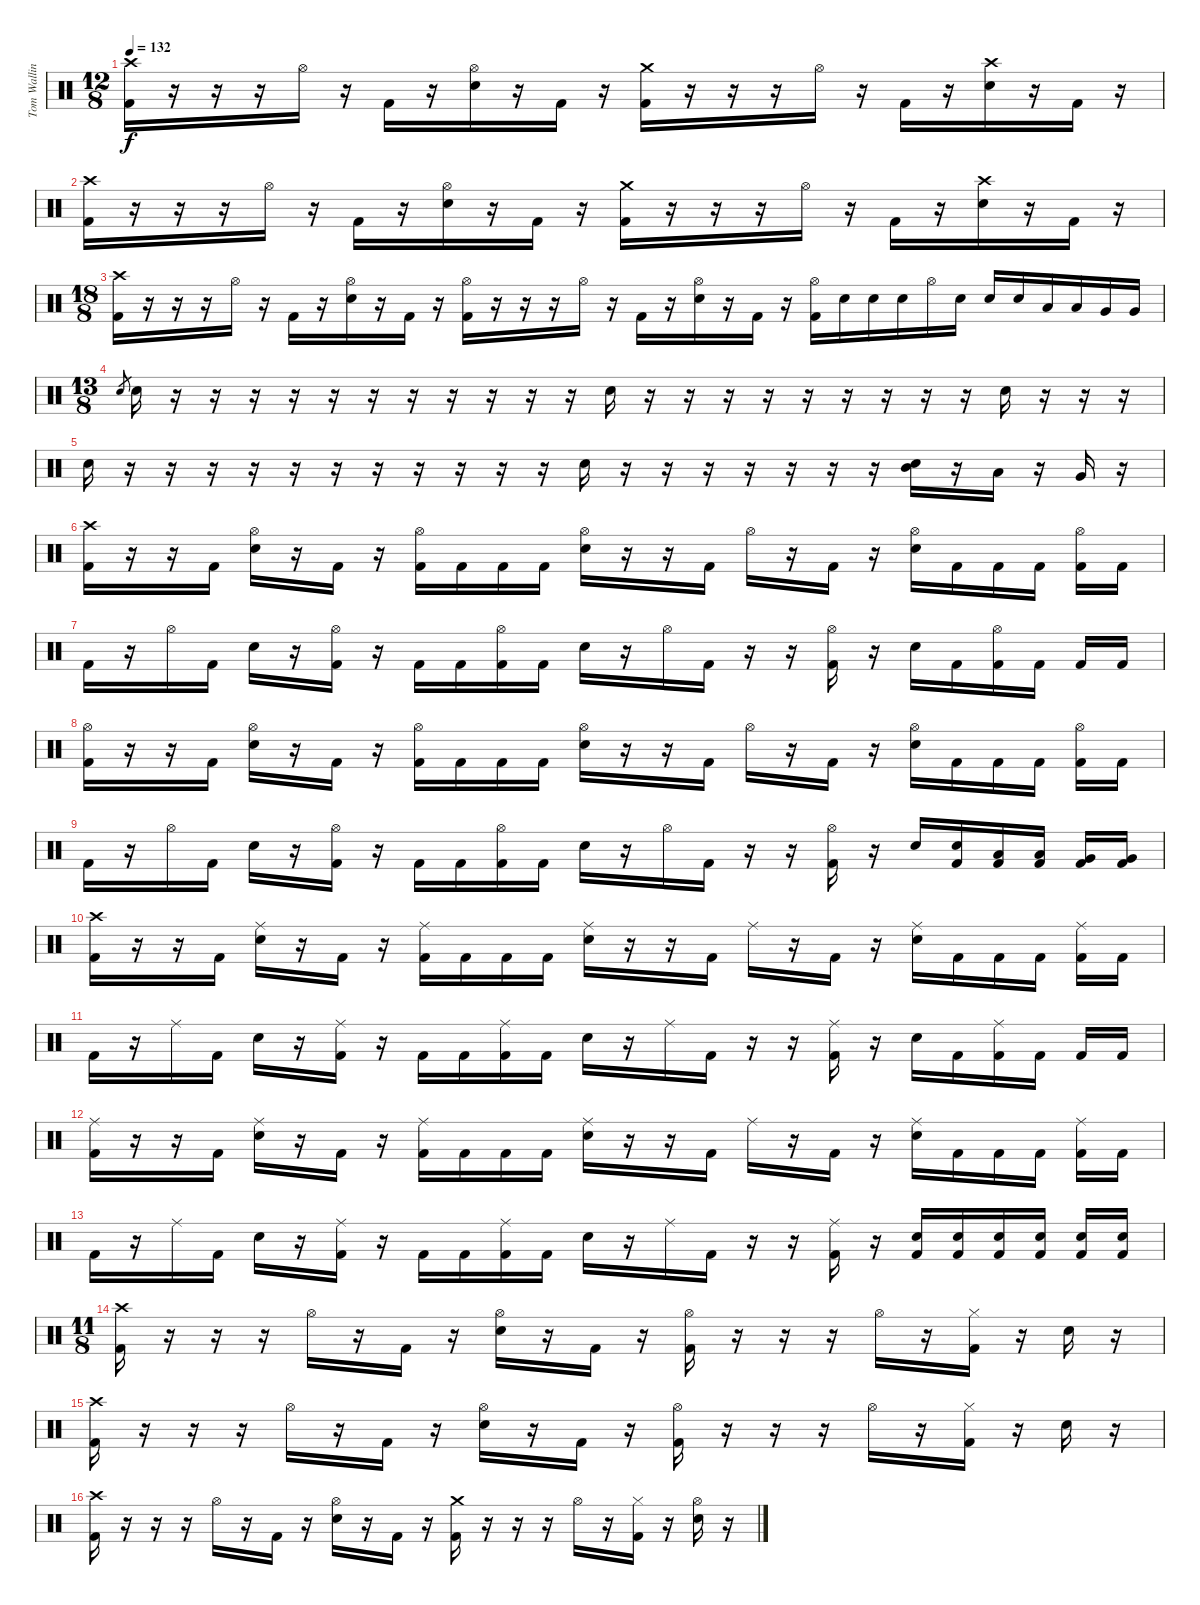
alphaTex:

\track ("Tom Walling [Drums]" "Tom Wallin") {instrument percussion}
\staff {score}
\articulation defaults
\ts (12 8)
\tempo 132
\clef neutral
\ks c
("Crash high (hit)" "Kick (hit) 2").16{dy f} r.16 r.16 r.16 "Hi-Hat (open)".16 r.16 "Kick (hit) 2".16 r.16 ("Hi-Hat (open)" "Electric Snare (hit)").16 r.16 "Kick (hit) 2".16 r.16 ("Crash medium (hit)" "Kick (hit) 2").16 r.16 r.16 r.16 "Hi-Hat (open)".16 r.16 "Kick (hit) 2".16 r.16 ("Crash high (hit)" "Electric Snare (hit)").16 r.16 "Kick (hit) 2".16 r.16 |
("Crash high (hit)" "Kick (hit) 2").16 r.16 r.16 r.16 "Hi-Hat (open)".16 r.16 "Kick (hit) 2".16 r.16 ("Hi-Hat (open)" "Electric Snare (hit)").16 r.16 "Kick (hit) 2".16 r.16 ("Crash medium (hit)" "Kick (hit) 2").16 r.16 r.16 r.16 "Hi-Hat (open)".16 r.16 "Kick (hit) 2".16 r.16 ("Crash high (hit)" "Electric Snare (hit)").16 r.16 "Kick (hit) 2".16 r.16 |
\ts (18 8)
("Crash high (hit)" "Kick (hit) 2").16 r.16 r.16 r.16 "Hi-Hat (open)".16 r.16 "Kick (hit) 2".16 r.16 ("Hi-Hat (open)" "Electric Snare (hit)").16 r.16 "Kick (hit) 2".16 r.16 ("Hi-Hat (open)" "Kick (hit) 2").16 r.16 r.16 r.16 "Hi-Hat (open)".16 r.16 "Kick (hit) 2".16 r.16 ("Hi-Hat (open)" "Electric Snare (hit)").16 r.16 "Kick (hit) 2".16 r.16 ("Hi-Hat (open)" "Kick (hit) 2").16 "Electric Snare (hit)".16 "Electric Snare (hit)".16 "Electric Snare (hit)".16 "Hi-Hat (open)".16 "Electric Snare (hit)".16 "Electric Snare (hit)".16 "Electric Snare (hit)".16 "Low Tom (hit)".16 "Low Tom (hit)".16 "Very Low Tom (hit)".16 "Very Low Tom (hit)".16 |
\ts (13 8)
"Electric Snare (hit)".8{gr} "Electric Snare (hit)".16 r.16 r.16 r.16 r.16 r.16 r.16 r.16 r.16 r.16 r.16 r.16 "Electric Snare (hit)".16 r.16 r.16 r.16 r.16 r.16 r.16 r.16 r.16 r.16 "Electric Snare (hit)".16 r.16 r.16 r.16 |
"Electric Snare (hit)".16 r.16 r.16 r.16 r.16 r.16 r.16 r.16 r.16 r.16 r.16 r.16 "Electric Snare (hit)".16 r.16 r.16 r.16 r.16 r.16 r.16 r.16 ("Mid Tom (hit)" "Electric Snare (hit)").16 r.16 "Low Tom (hit)".16 r.16 "Very Low Tom (hit)".16 r.16 |
("Crash high (hit)" "Kick (hit) 2").16 r.16 r.16 "Kick (hit) 2".16 ("Hi-Hat (open)" "Electric Snare (hit)").16 r.16 "Kick (hit) 2".16 r.16 ("Hi-Hat (open)" "Kick (hit) 2").16 "Kick (hit) 2".16 "Kick (hit) 2".16 "Kick (hit) 2".16 ("Hi-Hat (open)" "Electric Snare (hit)").16 r.16 r.16 "Kick (hit) 2".16 "Hi-Hat (open)".16 r.16 "Kick (hit) 2".16 r.16 ("Hi-Hat (open)" "Electric Snare (hit)").16 "Kick (hit) 2".16 "Kick (hit) 2".16 "Kick (hit) 2".16 ("Hi-Hat (open)" "Kick (hit) 2").16 "Kick (hit) 2".16 |
"Kick (hit) 2".16 r.16 "Hi-Hat (open)".16 "Kick (hit) 2".16 "Electric Snare (hit)".16 r.16 ("Hi-Hat (open)" "Kick (hit) 2").16 r.16 "Kick (hit) 2".16 "Kick (hit) 2".16 ("Hi-Hat (open)" "Kick (hit) 2").16 "Kick (hit) 2".16 "Electric Snare (hit)".16 r.16 "Hi-Hat (open)".16 "Kick (hit) 2".16 r.16 r.16 ("Hi-Hat (open)" "Kick (hit) 2").16 r.16 "Electric Snare (hit)".16 "Kick (hit) 2".16 ("Hi-Hat (open)" "Kick (hit) 2").16 "Kick (hit) 2".16 "Kick (hit) 2".16 "Kick (hit) 2".16 |
("Hi-Hat (open)" "Kick (hit) 2").16 r.16 r.16 "Kick (hit) 2".16 ("Hi-Hat (open)" "Electric Snare (hit)").16 r.16 "Kick (hit) 2".16 r.16 ("Hi-Hat (open)" "Kick (hit) 2").16 "Kick (hit) 2".16 "Kick (hit) 2".16 "Kick (hit) 2".16 ("Hi-Hat (open)" "Electric Snare (hit)").16 r.16 r.16 "Kick (hit) 2".16 "Hi-Hat (open)".16 r.16 "Kick (hit) 2".16 r.16 ("Hi-Hat (open)" "Electric Snare (hit)").16 "Kick (hit) 2".16 "Kick (hit) 2".16 "Kick (hit) 2".16 ("Hi-Hat (open)" "Kick (hit) 2").16 "Kick (hit) 2".16 |
"Kick (hit) 2".16 r.16 "Hi-Hat (open)".16 "Kick (hit) 2".16 "Electric Snare (hit)".16 r.16 ("Hi-Hat (open)" "Kick (hit) 2").16 r.16 "Kick (hit) 2".16 "Kick (hit) 2".16 ("Hi-Hat (open)" "Kick (hit) 2").16 "Kick (hit) 2".16 "Electric Snare (hit)".16 r.16 "Hi-Hat (open)".16 "Kick (hit) 2".16 r.16 r.16 ("Hi-Hat (open)" "Kick (hit) 2").16 r.16 "Electric Snare (hit)".16 ("Electric Snare (hit)" "Kick (hit) 2").16 ("Low Tom (hit)" "Kick (hit) 2").16 ("Low Tom (hit)" "Kick (hit) 2").16 ("Very Low Tom (hit)" "Kick (hit) 2").16 ("Very Low Tom (hit)" "Kick (hit) 2").16 |
("Crash high (hit)" "Kick (hit) 2").16 r.16 r.16 "Kick (hit) 2".16 ("Ride (middle)" "Electric Snare (hit)").16 r.16 "Kick (hit) 2".16 r.16 ("Ride (middle)" "Kick (hit) 2").16 "Kick (hit) 2".16 "Kick (hit) 2".16 "Kick (hit) 2".16 ("Ride (middle)" "Electric Snare (hit)").16 r.16 r.16 "Kick (hit) 2".16 "Ride (middle)".16 r.16 "Kick (hit) 2".16 r.16 ("Ride (middle)" "Electric Snare (hit)").16 "Kick (hit) 2".16 "Kick (hit) 2".16 "Kick (hit) 2".16 ("Ride (middle)" "Kick (hit) 2").16 "Kick (hit) 2".16 |
"Kick (hit) 2".16 r.16 "Ride (middle)".16 "Kick (hit) 2".16 "Electric Snare (hit)".16 r.16 ("Ride (middle)" "Kick (hit) 2").16 r.16 "Kick (hit) 2".16 "Kick (hit) 2".16 ("Ride (middle)" "Kick (hit) 2").16 "Kick (hit) 2".16 "Electric Snare (hit)".16 r.16 "Ride (middle)".16 "Kick (hit) 2".16 r.16 r.16 ("Ride (middle)" "Kick (hit) 2").16 r.16 "Electric Snare (hit)".16 "Kick (hit) 2".16 ("Ride (middle)" "Kick (hit) 2").16 "Kick (hit) 2".16 "Kick (hit) 2".16 "Kick (hit) 2".16 |
("Ride (middle)" "Kick (hit) 2").16 r.16 r.16 "Kick (hit) 2".16 ("Ride (middle)" "Electric Snare (hit)").16 r.16 "Kick (hit) 2".16 r.16 ("Ride (middle)" "Kick (hit) 2").16 "Kick (hit) 2".16 "Kick (hit) 2".16 "Kick (hit) 2".16 ("Ride (middle)" "Electric Snare (hit)").16 r.16 r.16 "Kick (hit) 2".16 "Ride (middle)".16 r.16 "Kick (hit) 2".16 r.16 ("Ride (middle)" "Electric Snare (hit)").16 "Kick (hit) 2".16 "Kick (hit) 2".16 "Kick (hit) 2".16 ("Ride (middle)" "Kick (hit) 2").16 "Kick (hit) 2".16 |
"Kick (hit) 2".16 r.16 "Ride (middle)".16 "Kick (hit) 2".16 "Electric Snare (hit)".16 r.16 ("Ride (middle)" "Kick (hit) 2").16 r.16 "Kick (hit) 2".16 "Kick (hit) 2".16 ("Ride (middle)" "Kick (hit) 2").16 "Kick (hit) 2".16 "Electric Snare (hit)".16 r.16 "Ride (middle)".16 "Kick (hit) 2".16 r.16 r.16 ("Ride (middle)" "Kick (hit) 2").16 r.16 ("Electric Snare (hit)" "Kick (hit) 2").16 ("Electric Snare (hit)" "Kick (hit) 2").16 ("Electric Snare (hit)" "Kick (hit) 2").16 ("Electric Snare (hit)" "Kick (hit) 2").16 ("Electric Snare (hit)" "Kick (hit) 2").16 ("Electric Snare (hit)" "Kick (hit) 2").16 |
\ts (11 8)
("Crash high (hit)" "Kick (hit) 2").16 r.16 r.16 r.16 "Hi-Hat (open)".16 r.16 "Kick (hit) 2".16 r.16 ("Hi-Hat (open)" "Electric Snare (hit)").16 r.16 "Kick (hit) 2".16 r.16 ("Hi-Hat (open)" "Kick (hit) 2").16 r.16 r.16 r.16 "Hi-Hat (open)".16 r.16 ("Hi-Hat (closed)" "Kick (hit) 2").16 r.16 "Electric Snare (hit)".16 r.16 |
("Crash high (hit)" "Kick (hit) 2").16 r.16 r.16 r.16 "Hi-Hat (open)".16 r.16 "Kick (hit) 2".16 r.16 ("Hi-Hat (open)" "Electric Snare (hit)").16 r.16 "Kick (hit) 2".16 r.16 ("Hi-Hat (open)" "Kick (hit) 2").16 r.16 r.16 r.16 "Hi-Hat (open)".16 r.16 ("Hi-Hat (closed)" "Kick (hit) 2").16 r.16 "Electric Snare (hit)".16 r.16 |
("Crash high (hit)" "Kick (hit) 2").16 r.16 r.16 r.16 "Hi-Hat (open)".16 r.16 "Kick (hit) 2".16 r.16 ("Hi-Hat (open)" "Electric Snare (hit)").16 r.16 "Kick (hit) 2".16 r.16 ("Crash medium (hit)" "Kick (hit) 2").16 r.16 r.16 r.16 "Hi-Hat (open)".16 r.16 ("Hi-Hat (closed)" "Kick (hit) 2").16 r.16 ("Hi-Hat (open)" "Electric Snare (hit)").16 r.16
